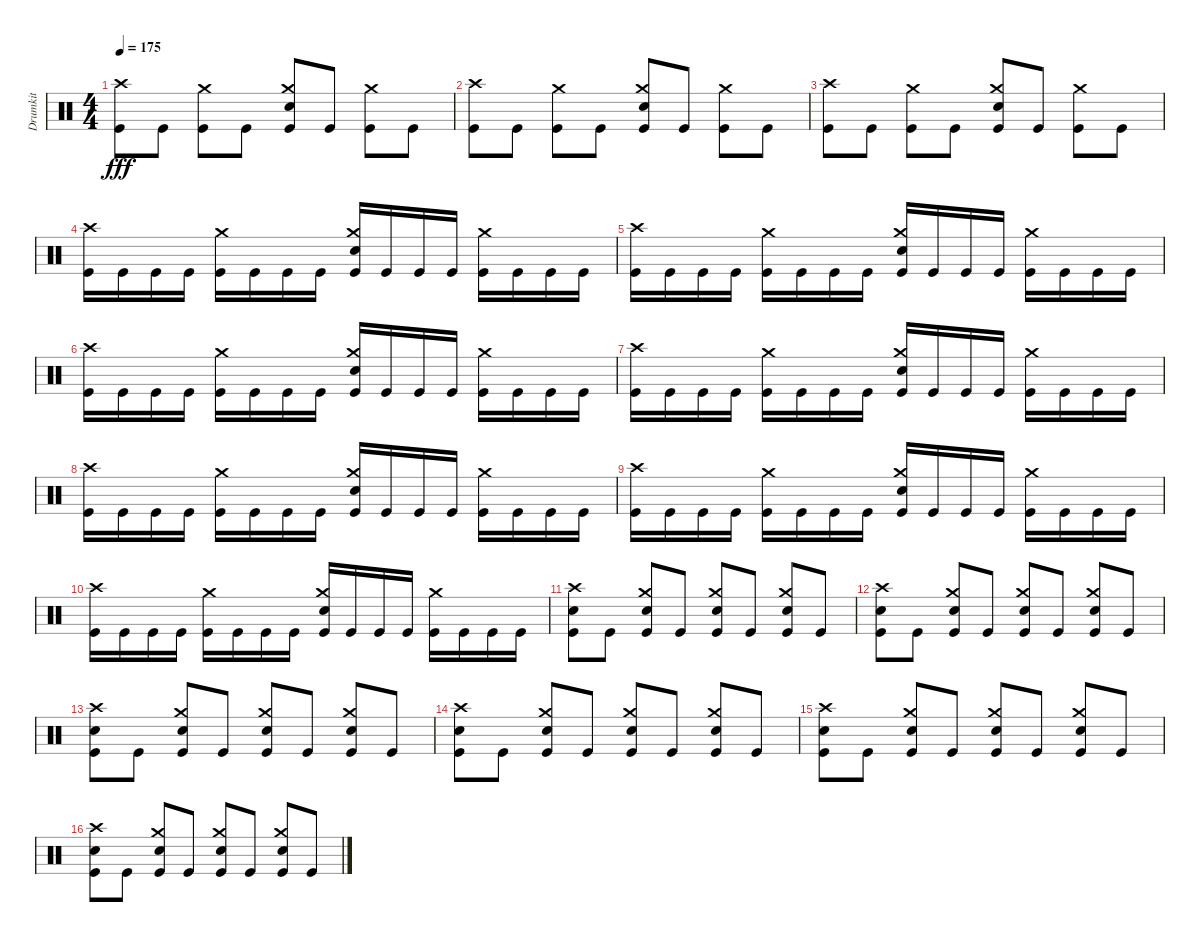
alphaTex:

\track ("Drumkit" "Drumkit") {instrument percussion}
\staff {score}
\articulation defaults
\ts (4 4)
\tempo 175
\clef neutral
\ks c
("Crash high (hit)" "Kick (hit)").8{dy fff} "Kick (hit)".8 ("Crash medium (hit)" "Kick (hit)").8 "Kick (hit)".8 ("Crash medium (hit)" "Snare (hit) 2" "Kick (hit)").8 "Kick (hit)".8 ("Crash medium (hit)" "Kick (hit)").8 "Kick (hit)".8 |
("Crash high (hit)" "Kick (hit)").8 "Kick (hit)".8 ("Crash medium (hit)" "Kick (hit)").8 "Kick (hit)".8 ("Crash medium (hit)" "Snare (hit) 2" "Kick (hit)").8 "Kick (hit)".8 ("Crash medium (hit)" "Kick (hit)").8 "Kick (hit)".8 |
("Crash high (hit)" "Kick (hit)").8 "Kick (hit)".8 ("Crash medium (hit)" "Kick (hit)").8 "Kick (hit)".8 ("Crash medium (hit)" "Snare (hit) 2" "Kick (hit)").8 "Kick (hit)".8 ("Crash medium (hit)" "Kick (hit)").8 "Kick (hit)".8 |
("Crash high (hit)" "Kick (hit)").16 "Kick (hit)".16 "Kick (hit)".16 "Kick (hit)".16 ("Crash medium (hit)" "Kick (hit)").16 "Kick (hit)".16 "Kick (hit)".16 "Kick (hit)".16 ("Crash medium (hit)" "Snare (hit) 2" "Kick (hit)").16 "Kick (hit)".16 "Kick (hit)".16 "Kick (hit)".16 ("Crash medium (hit)" "Kick (hit)").16 "Kick (hit)".16 "Kick (hit)".16 "Kick (hit)".16 |
("Crash high (hit)" "Kick (hit)").16 "Kick (hit)".16 "Kick (hit)".16 "Kick (hit)".16 ("Crash medium (hit)" "Kick (hit)").16 "Kick (hit)".16 "Kick (hit)".16 "Kick (hit)".16 ("Crash medium (hit)" "Snare (hit) 2" "Kick (hit)").16 "Kick (hit)".16 "Kick (hit)".16 "Kick (hit)".16 ("Crash medium (hit)" "Kick (hit)").16 "Kick (hit)".16 "Kick (hit)".16 "Kick (hit)".16 |
("Crash high (hit)" "Kick (hit)").16 "Kick (hit)".16 "Kick (hit)".16 "Kick (hit)".16 ("Crash medium (hit)" "Kick (hit)").16 "Kick (hit)".16 "Kick (hit)".16 "Kick (hit)".16 ("Crash medium (hit)" "Snare (hit) 2" "Kick (hit)").16 "Kick (hit)".16 "Kick (hit)".16 "Kick (hit)".16 ("Crash medium (hit)" "Kick (hit)").16 "Kick (hit)".16 "Kick (hit)".16 "Kick (hit)".16 |
("Crash high (hit)" "Kick (hit)").16 "Kick (hit)".16 "Kick (hit)".16 "Kick (hit)".16 ("Crash medium (hit)" "Kick (hit)").16 "Kick (hit)".16 "Kick (hit)".16 "Kick (hit)".16 ("Crash medium (hit)" "Snare (hit) 2" "Kick (hit)").16 "Kick (hit)".16 "Kick (hit)".16 "Kick (hit)".16 ("Crash medium (hit)" "Kick (hit)").16 "Kick (hit)".16 "Kick (hit)".16 "Kick (hit)".16 |
("Crash high (hit)" "Kick (hit)").16 "Kick (hit)".16 "Kick (hit)".16 "Kick (hit)".16 ("Crash medium (hit)" "Kick (hit)").16 "Kick (hit)".16 "Kick (hit)".16 "Kick (hit)".16 ("Crash medium (hit)" "Snare (hit) 2" "Kick (hit)").16 "Kick (hit)".16 "Kick (hit)".16 "Kick (hit)".16 ("Crash medium (hit)" "Kick (hit)").16 "Kick (hit)".16 "Kick (hit)".16 "Kick (hit)".16 |
("Crash high (hit)" "Kick (hit)").16 "Kick (hit)".16 "Kick (hit)".16 "Kick (hit)".16 ("Crash medium (hit)" "Kick (hit)").16 "Kick (hit)".16 "Kick (hit)".16 "Kick (hit)".16 ("Crash medium (hit)" "Snare (hit) 2" "Kick (hit)").16 "Kick (hit)".16 "Kick (hit)".16 "Kick (hit)".16 ("Crash medium (hit)" "Kick (hit)").16 "Kick (hit)".16 "Kick (hit)".16 "Kick (hit)".16 |
("Crash high (hit)" "Kick (hit)").16 "Kick (hit)".16 "Kick (hit)".16 "Kick (hit)".16 ("Crash medium (hit)" "Kick (hit)").16 "Kick (hit)".16 "Kick (hit)".16 "Kick (hit)".16 ("Crash medium (hit)" "Snare (hit) 2" "Kick (hit)").16 "Kick (hit)".16 "Kick (hit)".16 "Kick (hit)".16 ("Crash medium (hit)" "Kick (hit)").16 "Kick (hit)".16 "Kick (hit)".16 "Kick (hit)".16 |
("Crash high (hit)" "Snare (hit) 2" "Kick (hit)").8 "Kick (hit)".8 ("Crash medium (hit)" "Snare (hit) 2" "Kick (hit)").8 "Kick (hit)".8 ("Crash medium (hit)" "Snare (hit) 2" "Kick (hit)").8 "Kick (hit)".8 ("Crash medium (hit)" "Snare (hit) 2" "Kick (hit)").8 "Kick (hit)".8 |
("Crash high (hit)" "Snare (hit) 2" "Kick (hit)").8 "Kick (hit)".8 ("Crash medium (hit)" "Snare (hit) 2" "Kick (hit)").8 "Kick (hit)".8 ("Crash medium (hit)" "Snare (hit) 2" "Kick (hit)").8 "Kick (hit)".8 ("Crash medium (hit)" "Snare (hit) 2" "Kick (hit)").8 "Kick (hit)".8 |
("Crash high (hit)" "Snare (hit) 2" "Kick (hit)").8 "Kick (hit)".8 ("Crash medium (hit)" "Snare (hit) 2" "Kick (hit)").8 "Kick (hit)".8 ("Crash medium (hit)" "Snare (hit) 2" "Kick (hit)").8 "Kick (hit)".8 ("Crash medium (hit)" "Snare (hit) 2" "Kick (hit)").8 "Kick (hit)".8 |
("Crash high (hit)" "Snare (hit) 2" "Kick (hit)").8 "Kick (hit)".8 ("Crash medium (hit)" "Snare (hit) 2" "Kick (hit)").8 "Kick (hit)".8 ("Crash medium (hit)" "Snare (hit) 2" "Kick (hit)").8 "Kick (hit)".8 ("Crash medium (hit)" "Snare (hit) 2" "Kick (hit)").8 "Kick (hit)".8 |
("Crash high (hit)" "Snare (hit) 2" "Kick (hit)").8 "Kick (hit)".8 ("Crash medium (hit)" "Snare (hit) 2" "Kick (hit)").8 "Kick (hit)".8 ("Crash medium (hit)" "Snare (hit) 2" "Kick (hit)").8 "Kick (hit)".8 ("Crash medium (hit)" "Snare (hit) 2" "Kick (hit)").8 "Kick (hit)".8 |
("Crash high (hit)" "Snare (hit) 2" "Kick (hit)").8 "Kick (hit)".8 ("Crash medium (hit)" "Snare (hit) 2" "Kick (hit)").8 "Kick (hit)".8 ("Crash medium (hit)" "Snare (hit) 2" "Kick (hit)").8 "Kick (hit)".8 ("Crash medium (hit)" "Snare (hit) 2" "Kick (hit)").8 "Kick (hit)".8
